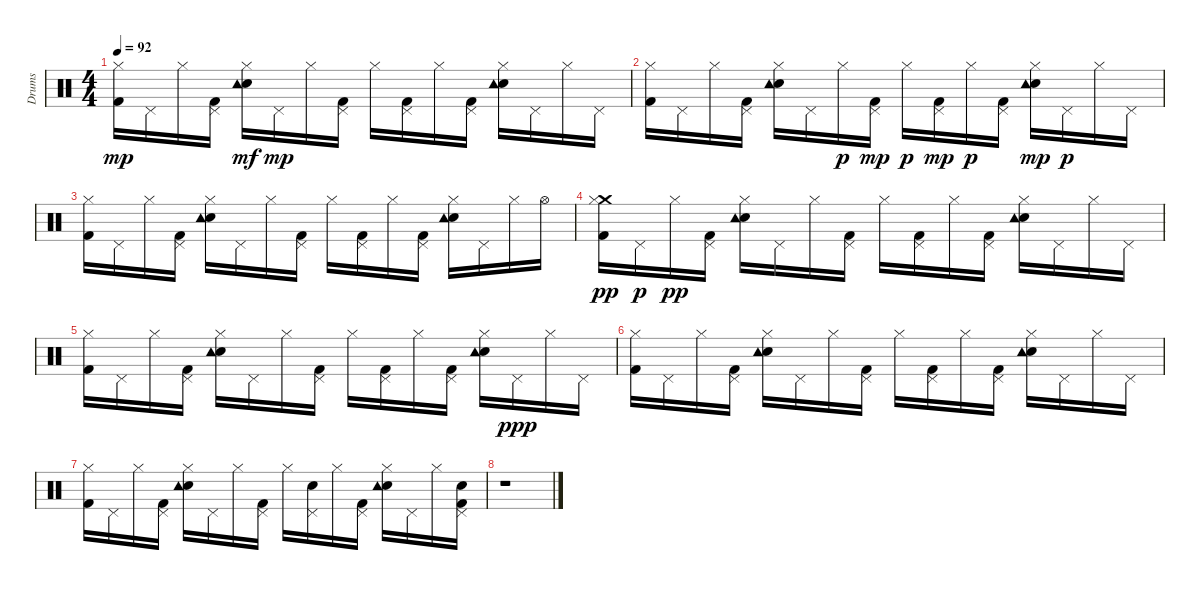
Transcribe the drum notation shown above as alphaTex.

\track ("Drums" "Drums") {instrument percussion}
\staff {score}
\articulation defaults
\ts (4 4)
\tempo 92
\clef neutral
\ks c
("Kick (hit) 2" "Hi-Hat (closed)").16{dy mp} "Pedal Hi-Hat (hit)".16 "Hi-Hat (closed)".16 ("Kick (hit) 2" "Pedal Hi-Hat (hit)").16 ("Electric Snare (hit)" "Hi-Hat (closed)" "Tambourine (hit)").16{dy mf} "Pedal Hi-Hat (hit)".16{dy mp} "Hi-Hat (closed)".16 ("Kick (hit) 2" "Pedal Hi-Hat (hit)").16 "Hi-Hat (closed)".16 ("Kick (hit) 2" "Pedal Hi-Hat (hit)").16 "Hi-Hat (closed)".16 ("Kick (hit) 2" "Pedal Hi-Hat (hit)").16 ("Electric Snare (hit)" "Hi-Hat (closed)" "Tambourine (hit)").16 "Pedal Hi-Hat (hit)".16 "Hi-Hat (closed)".16 "Pedal Hi-Hat (hit)".16 |
("Kick (hit) 2" "Hi-Hat (closed)").16 "Pedal Hi-Hat (hit)".16 "Hi-Hat (closed)".16 ("Kick (hit) 2" "Pedal Hi-Hat (hit)").16 ("Electric Snare (hit)" "Hi-Hat (closed)" "Tambourine (hit)").16 "Pedal Hi-Hat (hit)".16 "Hi-Hat (closed)".16{dy p} ("Kick (hit) 2" "Pedal Hi-Hat (hit)").16{dy mp} "Hi-Hat (closed)".16{dy p} ("Kick (hit) 2" "Pedal Hi-Hat (hit)").16{dy mp} "Hi-Hat (closed)".16{dy p} ("Kick (hit) 2" "Pedal Hi-Hat (hit)").16 ("Electric Snare (hit)" "Hi-Hat (closed)" "Tambourine (hit)").16{dy mp} "Pedal Hi-Hat (hit)".16{dy p} "Hi-Hat (closed)".16 "Pedal Hi-Hat (hit)".16 |
("Kick (hit) 2" "Hi-Hat (closed)").16 "Pedal Hi-Hat (hit)".16 "Hi-Hat (closed)".16 ("Kick (hit) 2" "Pedal Hi-Hat (hit)").16 ("Electric Snare (hit)" "Hi-Hat (closed)" "Tambourine (hit)").16 "Pedal Hi-Hat (hit)".16 "Hi-Hat (closed)".16 ("Kick (hit) 2" "Pedal Hi-Hat (hit)").16 "Hi-Hat (closed)".16 ("Kick (hit) 2" "Pedal Hi-Hat (hit)").16 "Hi-Hat (closed)".16 ("Kick (hit) 2" "Pedal Hi-Hat (hit)").16 ("Electric Snare (hit)" "Hi-Hat (closed)" "Tambourine (hit)").16 "Pedal Hi-Hat (hit)".16 "Hi-Hat (closed)".16 "Hi-Hat (open)".16 |
("Kick (hit) 2" "Crash medium (hit)" "Hi-Hat (closed)").16{dy pp} "Pedal Hi-Hat (hit)".16{dy p} "Hi-Hat (closed)".16{dy pp} ("Kick (hit) 2" "Pedal Hi-Hat (hit)").16 ("Electric Snare (hit)" "Hi-Hat (closed)" "Tambourine (hit)").16 "Pedal Hi-Hat (hit)".16 "Hi-Hat (closed)".16 ("Kick (hit) 2" "Pedal Hi-Hat (hit)").16 "Hi-Hat (closed)".16 ("Kick (hit) 2" "Pedal Hi-Hat (hit)").16 "Hi-Hat (closed)".16 ("Kick (hit) 2" "Pedal Hi-Hat (hit)").16 ("Electric Snare (hit)" "Hi-Hat (closed)" "Tambourine (hit)").16 "Pedal Hi-Hat (hit)".16 "Hi-Hat (closed)".16 "Pedal Hi-Hat (hit)".16 |
("Kick (hit) 2" "Hi-Hat (closed)").16 "Pedal Hi-Hat (hit)".16 "Hi-Hat (closed)".16 ("Kick (hit) 2" "Pedal Hi-Hat (hit)").16 ("Electric Snare (hit)" "Hi-Hat (closed)" "Tambourine (hit)").16 "Pedal Hi-Hat (hit)".16 "Hi-Hat (closed)".16 ("Kick (hit) 2" "Pedal Hi-Hat (hit)").16 "Hi-Hat (closed)".16 ("Kick (hit) 2" "Pedal Hi-Hat (hit)").16 "Hi-Hat (closed)".16 ("Kick (hit) 2" "Pedal Hi-Hat (hit)").16 ("Electric Snare (hit)" "Hi-Hat (closed)" "Tambourine (hit)").16 "Pedal Hi-Hat (hit)".16{dy ppp} "Hi-Hat (closed)".16 "Pedal Hi-Hat (hit)".16 |
("Kick (hit) 2" "Hi-Hat (closed)").16 "Pedal Hi-Hat (hit)".16 "Hi-Hat (closed)".16 ("Kick (hit) 2" "Pedal Hi-Hat (hit)").16 ("Electric Snare (hit)" "Hi-Hat (closed)" "Tambourine (hit)").16 "Pedal Hi-Hat (hit)".16 "Hi-Hat (closed)".16 ("Kick (hit) 2" "Pedal Hi-Hat (hit)").16 "Hi-Hat (closed)".16 ("Kick (hit) 2" "Pedal Hi-Hat (hit)").16 "Hi-Hat (closed)".16 ("Kick (hit) 2" "Pedal Hi-Hat (hit)").16 ("Electric Snare (hit)" "Hi-Hat (closed)" "Tambourine (hit)").16 "Pedal Hi-Hat (hit)".16 "Hi-Hat (closed)".16 "Pedal Hi-Hat (hit)".16 |
("Kick (hit) 2" "Hi-Hat (closed)").16 "Pedal Hi-Hat (hit)".16 "Hi-Hat (closed)".16 ("Kick (hit) 2" "Pedal Hi-Hat (hit)").16 ("Electric Snare (hit)" "Hi-Hat (closed)" "Tambourine (hit)").16 "Pedal Hi-Hat (hit)".16 "Hi-Hat (closed)".16 ("Kick (hit) 2" "Pedal Hi-Hat (hit)").16 "Hi-Hat (closed)".16 ("Electric Snare (hit)" "Pedal Hi-Hat (hit)").16 "Hi-Hat (closed)".16 ("Kick (hit) 2" "Pedal Hi-Hat (hit)").16 ("Electric Snare (hit)" "Hi-Hat (closed)" "Tambourine (hit)").16 "Pedal Hi-Hat (hit)".16 "Hi-Hat (closed)".16 ("Electric Snare (hit)" "Kick (hit) 2" "Pedal Hi-Hat (hit)").16 |
r.1
